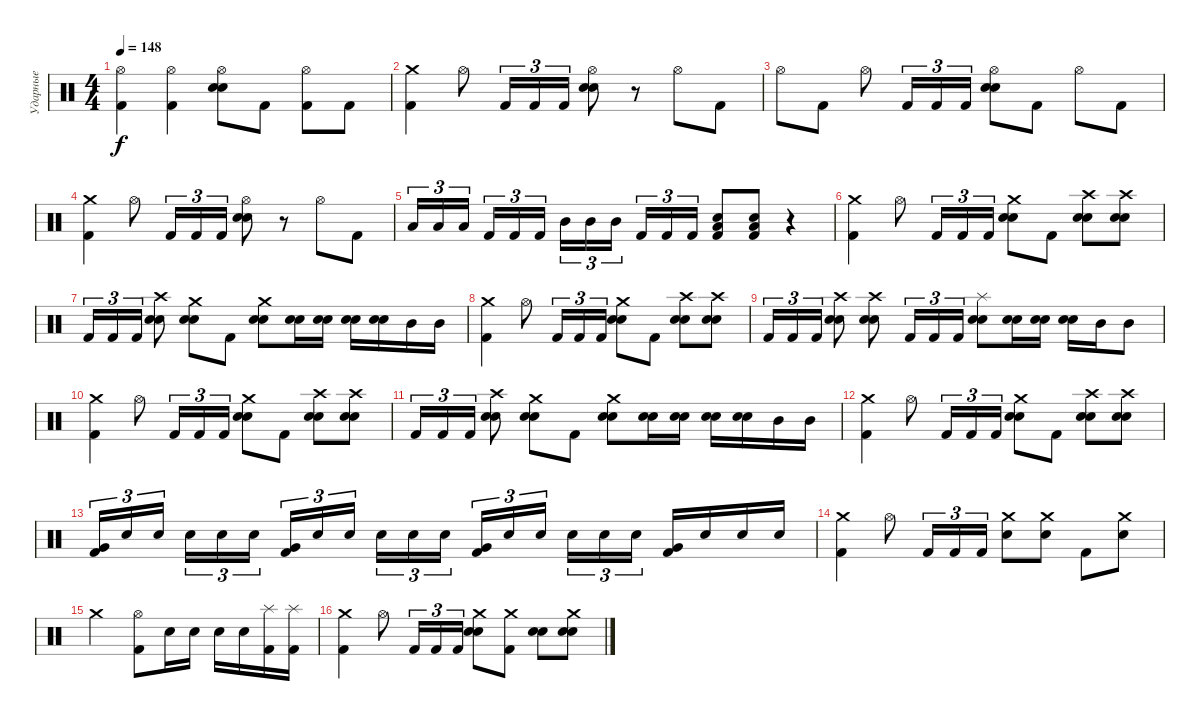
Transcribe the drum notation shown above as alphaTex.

\track ("Ударные" "Ударные") {instrument percussion}
\staff {score}
\articulation defaults
\ts (4 4)
\tempo 148
\clef neutral
\ks c
("Hi-Hat (open)" "Kick (hit) 2").4{dy f} ("Hi-Hat (open)" "Kick (hit) 2").4 ("Hi-Hat (open)" "Electric Snare (hit)" "Snare (hit) 2").8 "Kick (hit) 2".8 ("Hi-Hat (open)" "Kick (hit) 2").8 "Kick (hit) 2".8 |
("Crash medium (hit)" "Kick (hit) 2").4 "Hi-Hat (open)".8 "Kick (hit) 2".16{tu (3 2)} "Kick (hit) 2".16{tu (3 2)} "Kick (hit) 2".16{tu (3 2)} ("Hi-Hat (open)" "Electric Snare (hit)" "Snare (hit) 2").8 r.8 "Hi-Hat (open)".8 "Kick (hit) 2".8 |
"Hi-Hat (open)".8 "Kick (hit) 2".8 "Hi-Hat (open)".8 "Kick (hit) 2".16{tu (3 2)} "Kick (hit) 2".16{tu (3 2)} "Kick (hit) 2".16{tu (3 2)} ("Hi-Hat (open)" "Electric Snare (hit)" "Snare (hit) 2").8 "Kick (hit) 2".8 "Hi-Hat (open)".8 "Kick (hit) 2".8 |
("Crash medium (hit)" "Kick (hit) 2").4 "Hi-Hat (open)".8 "Kick (hit) 2".16{tu (3 2)} "Kick (hit) 2".16{tu (3 2)} "Kick (hit) 2".16{tu (3 2)} ("Hi-Hat (open)" "Electric Snare (hit)" "Snare (hit) 2").8 r.8 "Hi-Hat (open)".8 "Kick (hit) 2".8 |
"Low Tom (hit)".16{tu (3 2)} "Low Tom (hit)".16{tu (3 2)} "Low Tom (hit)".16{tu (3 2) beam splitsecondary} "Kick (hit) 2".16{tu (3 2)} "Kick (hit) 2".16{tu (3 2)} "Kick (hit) 2".16{tu (3 2)} "Mid Tom (hit)".16{tu (3 2)} "Mid Tom (hit)".16{tu (3 2)} "Mid Tom (hit)".16{tu (3 2) beam splitsecondary} "Kick (hit) 2".16{tu (3 2)} "Kick (hit) 2".16{tu (3 2)} "Kick (hit) 2".16{tu (3 2)} ("Low Floor Tom (hit)" "Electric Snare (hit)" "Kick (hit) 2").8 ("Low Floor Tom (hit)" "Electric Snare (hit)" "Kick (hit) 2").8 r.4 |
("Crash medium (hit)" "Kick (hit) 2").4 "Hi-Hat (open)".8 "Kick (hit) 2".16{tu (3 2)} "Kick (hit) 2".16{tu (3 2)} "Kick (hit) 2".16{tu (3 2)} ("Crash medium (hit)" "Electric Snare (hit)" "Snare (hit) 2").8 "Kick (hit) 2".8 ("Crash high (hit)" "Electric Snare (hit)" "Snare (hit) 2").8 ("Crash high (hit)" "Electric Snare (hit)" "Snare (hit) 2").8 |
"Kick (hit) 2".16{tu (3 2)} "Kick (hit) 2".16{tu (3 2)} "Kick (hit) 2".16{tu (3 2)} ("Crash high (hit)" "Electric Snare (hit)" "Snare (hit) 2").8 ("Crash medium (hit)" "Electric Snare (hit)" "Snare (hit) 2").8 "Kick (hit) 2".8 ("Crash medium (hit)" "Electric Snare (hit)" "Snare (hit) 2").8 ("Electric Snare (hit)" "Snare (hit) 2").16 ("Electric Snare (hit)" "Snare (hit) 2").16 ("Electric Snare (hit)" "Snare (hit) 2").16 ("Electric Snare (hit)" "Snare (hit) 2").16 "Mid Tom (hit)".16 "Mid Tom (hit)".16 |
("Crash medium (hit)" "Kick (hit) 2").4 "Hi-Hat (open)".8 "Kick (hit) 2".16{tu (3 2)} "Kick (hit) 2".16{tu (3 2)} "Kick (hit) 2".16{tu (3 2)} ("Crash medium (hit)" "Electric Snare (hit)" "Snare (hit) 2").8 "Kick (hit) 2".8 ("Crash high (hit)" "Electric Snare (hit)" "Snare (hit) 2").8 ("Crash high (hit)" "Electric Snare (hit)" "Snare (hit) 2").8 |
"Kick (hit) 2".16{tu (3 2)} "Kick (hit) 2".16{tu (3 2)} "Kick (hit) 2".16{tu (3 2)} ("Crash high (hit)" "Electric Snare (hit)" "Snare (hit) 2").8 ("Crash high (hit)" "Electric Snare (hit)" "Snare (hit) 2").8 "Kick (hit) 2".16{tu (3 2)} "Kick (hit) 2".16{tu (3 2)} "Kick (hit) 2".16{tu (3 2)} ("Splash (hit)" "Electric Snare (hit)" "Snare (hit) 2").8 ("Electric Snare (hit)" "Snare (hit) 2").16 ("Electric Snare (hit)" "Snare (hit) 2").16 ("Electric Snare (hit)" "Snare (hit) 2").16 "Mid Tom (hit)".16 "Mid Tom (hit)".8 |
("Crash medium (hit)" "Kick (hit) 2").4 "Hi-Hat (open)".8 "Kick (hit) 2".16{tu (3 2)} "Kick (hit) 2".16{tu (3 2)} "Kick (hit) 2".16{tu (3 2)} ("Crash medium (hit)" "Electric Snare (hit)" "Snare (hit) 2").8 "Kick (hit) 2".8 ("Crash high (hit)" "Electric Snare (hit)" "Snare (hit) 2").8 ("Crash high (hit)" "Electric Snare (hit)" "Snare (hit) 2").8 |
"Kick (hit) 2".16{tu (3 2)} "Kick (hit) 2".16{tu (3 2)} "Kick (hit) 2".16{tu (3 2)} ("Crash high (hit)" "Electric Snare (hit)" "Snare (hit) 2").8 ("Crash medium (hit)" "Electric Snare (hit)" "Snare (hit) 2").8 "Kick (hit) 2".8 ("Crash medium (hit)" "Electric Snare (hit)" "Snare (hit) 2").8 ("Electric Snare (hit)" "Snare (hit) 2").16 ("Electric Snare (hit)" "Snare (hit) 2").16 ("Electric Snare (hit)" "Snare (hit) 2").16 ("Electric Snare (hit)" "Snare (hit) 2").16 "Mid Tom (hit)".16 "Mid Tom (hit)".16 |
("Crash medium (hit)" "Kick (hit) 2").4 "Hi-Hat (open)".8 "Kick (hit) 2".16{tu (3 2)} "Kick (hit) 2".16{tu (3 2)} "Kick (hit) 2".16{tu (3 2)} ("Crash medium (hit)" "Electric Snare (hit)" "Snare (hit) 2").8 "Kick (hit) 2".8 ("Crash high (hit)" "Electric Snare (hit)" "Snare (hit) 2").8 ("Crash high (hit)" "Electric Snare (hit)" "Snare (hit) 2").8 |
("Very Low Tom (hit)" "Kick (hit) 2").16{tu (3 2)} "Electric Snare (hit)".16{tu (3 2)} "Electric Snare (hit)".16{tu (3 2) beam splitsecondary} "Electric Snare (hit)".16{tu (3 2)} "Electric Snare (hit)".16{tu (3 2)} "Electric Snare (hit)".16{tu (3 2)} ("Very Low Tom (hit)" "Kick (hit) 2").16{tu (3 2)} "Electric Snare (hit)".16{tu (3 2)} "Electric Snare (hit)".16{tu (3 2) beam splitsecondary} "Electric Snare (hit)".16{tu (3 2)} "Electric Snare (hit)".16{tu (3 2)} "Electric Snare (hit)".16{tu (3 2)} ("Very Low Tom (hit)" "Kick (hit) 2").16{tu (3 2)} "Electric Snare (hit)".16{tu (3 2)} "Electric Snare (hit)".16{tu (3 2) beam splitsecondary} "Electric Snare (hit)".16{tu (3 2)} "Electric Snare (hit)".16{tu (3 2)} "Electric Snare (hit)".16{tu (3 2)} ("Very Low Tom (hit)" "Kick (hit) 2").16 "Electric Snare (hit)".16 "Electric Snare (hit)".16 "Electric Snare (hit)".16 |
("Crash medium (hit)" "Kick (hit) 2").4 "Hi-Hat (open)".8 "Kick (hit) 2".16{tu (3 2)} "Kick (hit) 2".16{tu (3 2)} "Kick (hit) 2".16{tu (3 2)} ("Crash medium (hit)" "Electric Snare (hit)").8 ("Crash medium (hit)" "Electric Snare (hit)").8 "Kick (hit) 2".8 ("Crash medium (hit)" "Electric Snare (hit)").8 |
"Crash medium (hit)".2 ("Hi-Hat (open)" "Kick (hit) 2").8 "Electric Snare (hit)".16 "Electric Snare (hit)".16 "Electric Snare (hit)".16 "Electric Snare (hit)".16 ("Splash (hit)" "Kick (hit) 2").16 ("Splash (hit)" "Kick (hit) 2").16 |
("Crash medium (hit)" "Kick (hit) 2").4 "Hi-Hat (open)".8 "Kick (hit) 2".16{tu (3 2)} "Kick (hit) 2".16{tu (3 2)} "Kick (hit) 2".16{tu (3 2)} ("Crash medium (hit)" "Snare (hit) 2" "Electric Snare (hit)").8 ("Crash medium (hit)" "Kick (hit) 2").8 ("Snare (hit) 2" "Electric Snare (hit)").8 ("Crash medium (hit)" "Snare (hit) 2" "Electric Snare (hit)").8
